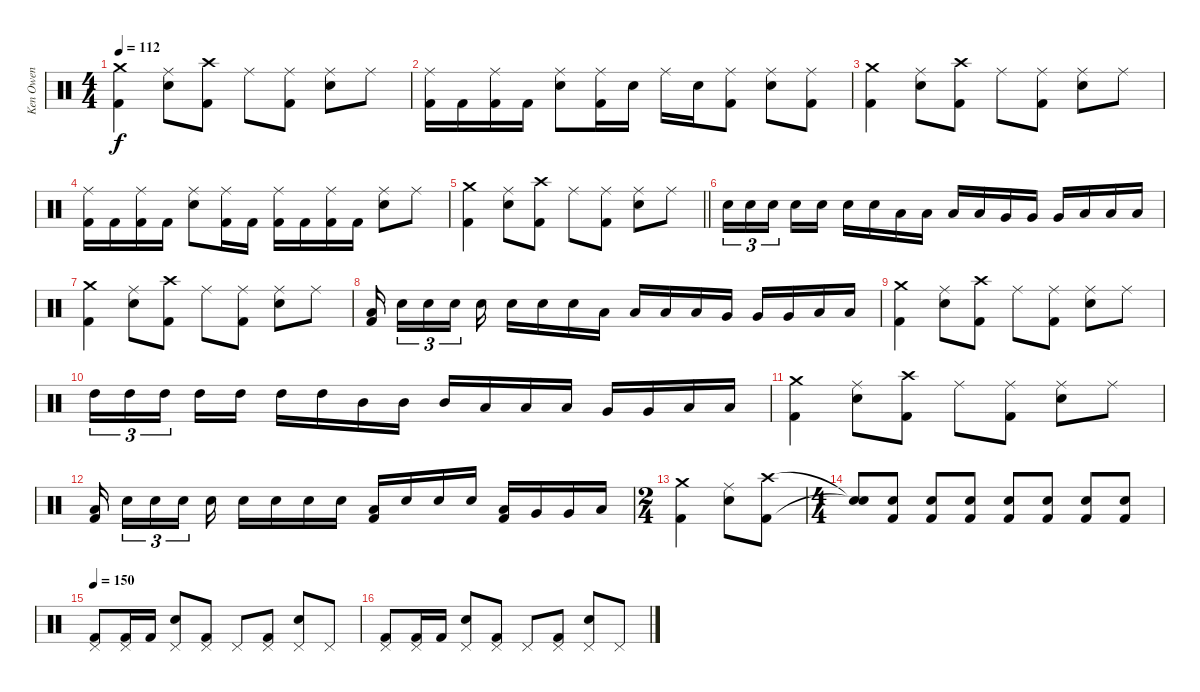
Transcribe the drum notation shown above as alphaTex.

\track ("Ken Owen" "Ken Owen") {instrument percussion}
\staff {score}
\articulation defaults
\ts (4 4)
\tempo 112
\clef neutral
\ks c
("Crash medium (hit)" "Kick (hit) 2").4{dy f} ("Ride (middle)" "Electric Snare (hit)").8 ("Crash high (hit)" "Kick (hit) 2").8 "Ride (middle)".8 ("Ride (middle)" "Kick (hit) 2").8 ("Ride (middle)" "Electric Snare (hit)").8 "Ride (middle)".8 |
("Ride (middle)" "Kick (hit) 2").16 "Kick (hit) 2".16 ("Ride (middle)" "Kick (hit) 2").16 "Kick (hit) 2".16 ("Ride (middle)" "Electric Snare (hit)").8 ("Ride (middle)" "Kick (hit) 2").16 "Electric Snare (hit)".16 "Ride (middle)".16 "Electric Snare (hit)".16 ("Ride (middle)" "Kick (hit) 2").8 ("Ride (middle)" "Electric Snare (hit)").8 ("Ride (middle)" "Kick (hit) 2").8 |
("Crash medium (hit)" "Kick (hit) 2").4 ("Ride (middle)" "Electric Snare (hit)").8 ("Crash high (hit)" "Kick (hit) 2").8 "Ride (middle)".8 ("Ride (middle)" "Kick (hit) 2").8 ("Ride (middle)" "Electric Snare (hit)").8 "Ride (middle)".8 |
("Ride (middle)" "Kick (hit) 2").16 "Kick (hit) 2".16 ("Ride (middle)" "Kick (hit) 2").16 "Kick (hit) 2".16 ("Ride (middle)" "Electric Snare (hit)").8 ("Ride (middle)" "Kick (hit) 2").16 "Kick (hit) 2".16 ("Ride (middle)" "Kick (hit) 2").16 "Kick (hit) 2".16 ("Ride (middle)" "Kick (hit) 2").16 "Kick (hit) 2".16 ("Ride (middle)" "Electric Snare (hit)").8 "Ride (middle)".8 |
\barLineRight lightlight
("Crash medium (hit)" "Kick (hit) 2").4 ("Ride (middle)" "Electric Snare (hit)").8 ("Crash high (hit)" "Kick (hit) 2").8 "Ride (middle)".8 ("Ride (middle)" "Kick (hit) 2").8 ("Ride (middle)" "Electric Snare (hit)").8 "Ride (middle)".8 |
"Electric Snare (hit)".16{tu (3 2)} "Electric Snare (hit)".16{tu (3 2)} "Electric Snare (hit)".16{tu (3 2) beam splitsecondary} "Electric Snare (hit)".16 "Electric Snare (hit)".16 "Electric Snare (hit)".16 "Electric Snare (hit)".16 "Low Tom (hit)".16 "Low Tom (hit)".16 "Low Tom (hit)".16 "Low Tom (hit)".16 "Very Low Tom (hit)".16 "Very Low Tom (hit)".16 "Very Low Tom (hit)".16 "Low Floor Tom (hit)".16 "Low Floor Tom (hit)".16 "Low Floor Tom (hit)".16 |
("Crash medium (hit)" "Kick (hit) 2").4 ("Ride (middle)" "Electric Snare (hit)").8 ("Crash high (hit)" "Kick (hit) 2").8 "Ride (middle)".8 ("Ride (middle)" "Kick (hit) 2").8 ("Ride (middle)" "Electric Snare (hit)").8 "Ride (middle)".8 |
("Low Tom (hit)" "Kick (hit) 2").16{beam splitsecondary} "Electric Snare (hit)".16{tu (3 2)} "Electric Snare (hit)".16{tu (3 2)} "Electric Snare (hit)".16{tu (3 2) beam splitsecondary} "Electric Snare (hit)".16 "Electric Snare (hit)".16 "Electric Snare (hit)".16 "Electric Snare (hit)".16 "Low Tom (hit)".16 "Low Tom (hit)".16 "Low Tom (hit)".16 "Low Tom (hit)".16 "Very Low Tom (hit)".16 "Very Low Tom (hit)".16 "Very Low Tom (hit)".16 "Low Floor Tom (hit)".16 "Low Floor Tom (hit)".16 |
("Crash medium (hit)" "Kick (hit) 2").4 ("Ride (middle)" "Electric Snare (hit)").8 ("Crash high (hit)" "Kick (hit) 2").8 "Ride (middle)".8 ("Ride (middle)" "Kick (hit) 2").8 ("Ride (middle)" "Electric Snare (hit)").8 "Ride (middle)".8 |
"High Tom (hit)".16{tu (3 2)} "High Tom (hit)".16{tu (3 2)} "High Tom (hit)".16{tu (3 2) beam splitsecondary} "High Tom (hit)".16 "High Tom (hit)".16 "High Tom (hit)".16 "High Tom (hit)".16 "Mid Tom (hit)".16 "Mid Tom (hit)".16 "Mid Tom (hit)".16 "Low Tom (hit)".16 "Low Tom (hit)".16 "Low Tom (hit)".16 "Very Low Tom (hit)".16 "Very Low Tom (hit)".16 "Low Floor Tom (hit)".16 "Low Floor Tom (hit)".16 |
("Crash medium (hit)" "Kick (hit) 2").4 ("Ride (middle)" "Electric Snare (hit)").8 ("Crash high (hit)" "Kick (hit) 2").8 "Ride (middle)".8 ("Ride (middle)" "Kick (hit) 2").8 ("Ride (middle)" "Electric Snare (hit)").8 "Ride (middle)".8 |
("Low Tom (hit)" "Kick (hit) 2").16{beam splitsecondary} "Electric Snare (hit)".16{tu (3 2)} "Electric Snare (hit)".16{tu (3 2)} "Electric Snare (hit)".16{tu (3 2) beam splitsecondary} "Electric Snare (hit)".16 "Electric Snare (hit)".16 "Electric Snare (hit)".16 "Electric Snare (hit)".16 "Electric Snare (hit)".16 ("Low Tom (hit)" "Kick (hit) 2").16 "Electric Snare (hit)".16 "Electric Snare (hit)".16 "Electric Snare (hit)".16 ("Low Tom (hit)" "Kick (hit) 2").16 "Very Low Tom (hit)".16 "Very Low Tom (hit)".16 "Low Floor Tom (hit)".16 |
\ts (2 4)
("Crash medium (hit)" "Kick (hit) 2").4 ("Ride (middle)" "Electric Snare (hit)").8 ("Crash high (hit)" "Kick (hit) 2").8 |
\ts (4 4)
("Snare (hit)"{t} "Snare (hit)"{t}).8 ("Electric Snare (hit)" "Kick (hit) 2").8 ("Electric Snare (hit)" "Kick (hit) 2").8 ("Electric Snare (hit)" "Kick (hit) 2").8 ("Electric Snare (hit)" "Kick (hit) 2").8 ("Electric Snare (hit)" "Kick (hit) 2").8 ("Electric Snare (hit)" "Kick (hit) 2").8 ("Electric Snare (hit)" "Kick (hit) 2").8 |
\tempo 150
("Pedal Hi-Hat (hit)" "Kick (hit) 2").8 ("Pedal Hi-Hat (hit)" "Kick (hit) 2").16 "Kick (hit) 2".16 ("Pedal Hi-Hat (hit)" "Electric Snare (hit)").8 ("Pedal Hi-Hat (hit)" "Kick (hit) 2").8 "Pedal Hi-Hat (hit)".8 ("Pedal Hi-Hat (hit)" "Kick (hit) 2").8 ("Pedal Hi-Hat (hit)" "Electric Snare (hit)").8 "Pedal Hi-Hat (hit)".8 |
("Pedal Hi-Hat (hit)" "Kick (hit) 2").8 ("Pedal Hi-Hat (hit)" "Kick (hit) 2").16 "Kick (hit) 2".16 ("Pedal Hi-Hat (hit)" "Electric Snare (hit)").8 ("Pedal Hi-Hat (hit)" "Kick (hit) 2").8 "Pedal Hi-Hat (hit)".8 ("Pedal Hi-Hat (hit)" "Kick (hit) 2").8 ("Pedal Hi-Hat (hit)" "Electric Snare (hit)").8 "Pedal Hi-Hat (hit)".8
